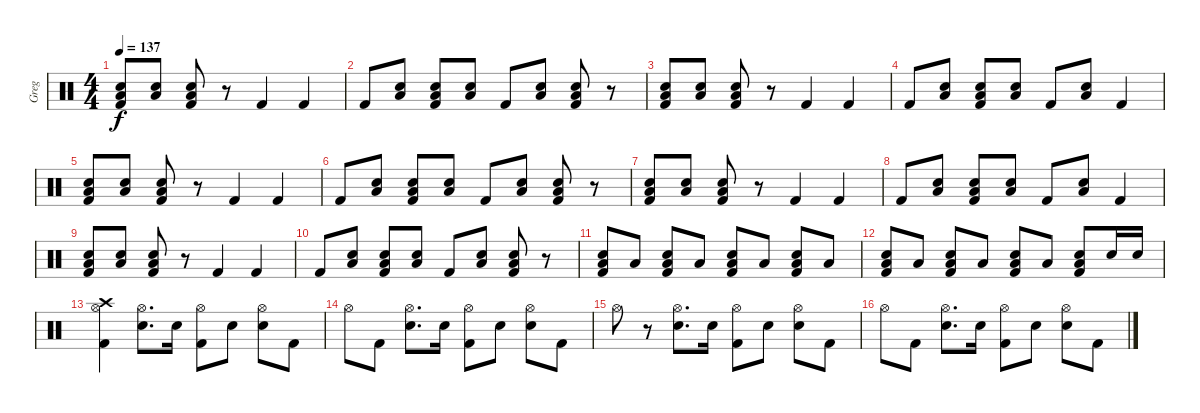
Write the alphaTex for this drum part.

\track ("Greg" "Greg") {instrument percussion}
\staff {score}
\articulation defaults
\ts (4 4)
\tempo 137
\clef neutral
\ks c
("Electric Snare (hit)" "Low Floor Tom (hit)" "Kick (hit) 2").8{dy f} ("Electric Snare (hit)" "Low Floor Tom (hit)").8 ("Electric Snare (hit)" "Low Floor Tom (hit)" "Kick (hit) 2").8 r.8 "Kick (hit) 2".4 "Kick (hit) 2".4 |
"Kick (hit) 2".8 ("Electric Snare (hit)" "Low Floor Tom (hit)").8 ("Electric Snare (hit)" "Low Floor Tom (hit)" "Kick (hit) 2").8 ("Electric Snare (hit)" "Low Floor Tom (hit)").8 "Kick (hit) 2".8 ("Electric Snare (hit)" "Low Floor Tom (hit)").8 ("Electric Snare (hit)" "Low Floor Tom (hit)" "Kick (hit) 2").8 r.8 |
("Electric Snare (hit)" "Low Floor Tom (hit)" "Kick (hit) 2").8 ("Electric Snare (hit)" "Low Floor Tom (hit)").8 ("Electric Snare (hit)" "Low Floor Tom (hit)" "Kick (hit) 2").8 r.8 "Kick (hit) 2".4 "Kick (hit) 2".4 |
"Kick (hit) 2".8 ("Electric Snare (hit)" "Low Floor Tom (hit)").8 ("Electric Snare (hit)" "Low Floor Tom (hit)" "Kick (hit) 2").8 ("Electric Snare (hit)" "Low Floor Tom (hit)").8 "Kick (hit) 2".8 ("Electric Snare (hit)" "Low Floor Tom (hit)").8 "Kick (hit) 2".4 |
("Electric Snare (hit)" "Low Floor Tom (hit)" "Kick (hit) 2").8 ("Electric Snare (hit)" "Low Floor Tom (hit)").8 ("Electric Snare (hit)" "Low Floor Tom (hit)" "Kick (hit) 2").8 r.8 "Kick (hit) 2".4 "Kick (hit) 2".4 |
"Kick (hit) 2".8 ("Electric Snare (hit)" "Low Floor Tom (hit)").8 ("Electric Snare (hit)" "Low Floor Tom (hit)" "Kick (hit) 2").8 ("Electric Snare (hit)" "Low Floor Tom (hit)").8 "Kick (hit) 2".8 ("Electric Snare (hit)" "Low Floor Tom (hit)").8 ("Electric Snare (hit)" "Low Floor Tom (hit)" "Kick (hit) 2").8 r.8 |
("Electric Snare (hit)" "Low Floor Tom (hit)" "Kick (hit) 2").8 ("Electric Snare (hit)" "Low Floor Tom (hit)").8 ("Electric Snare (hit)" "Low Floor Tom (hit)" "Kick (hit) 2").8 r.8 "Kick (hit) 2".4 "Kick (hit) 2".4 |
"Kick (hit) 2".8 ("Electric Snare (hit)" "Low Floor Tom (hit)").8 ("Electric Snare (hit)" "Low Floor Tom (hit)" "Kick (hit) 2").8 ("Electric Snare (hit)" "Low Floor Tom (hit)").8 "Kick (hit) 2".8 ("Electric Snare (hit)" "Low Floor Tom (hit)").8 "Kick (hit) 2".4 |
("Electric Snare (hit)" "Low Floor Tom (hit)" "Kick (hit) 2").8 ("Electric Snare (hit)" "Low Floor Tom (hit)").8 ("Electric Snare (hit)" "Low Floor Tom (hit)" "Kick (hit) 2").8 r.8 "Kick (hit) 2".4 "Kick (hit) 2".4 |
"Kick (hit) 2".8 ("Electric Snare (hit)" "Low Floor Tom (hit)").8 ("Electric Snare (hit)" "Low Floor Tom (hit)" "Kick (hit) 2").8 ("Electric Snare (hit)" "Low Floor Tom (hit)").8 "Kick (hit) 2".8 ("Electric Snare (hit)" "Low Floor Tom (hit)").8 ("Electric Snare (hit)" "Low Floor Tom (hit)" "Kick (hit) 2").8 r.8 |
("Electric Snare (hit)" "Low Floor Tom (hit)" "Kick (hit) 2").8 "Low Floor Tom (hit)".8 ("Electric Snare (hit)" "Low Floor Tom (hit)" "Kick (hit) 2").8 "Low Floor Tom (hit)".8 ("Electric Snare (hit)" "Low Floor Tom (hit)" "Kick (hit) 2").8 "Low Floor Tom (hit)".8 ("Electric Snare (hit)" "Low Floor Tom (hit)" "Kick (hit) 2").8 "Low Floor Tom (hit)".8 |
("Electric Snare (hit)" "Low Floor Tom (hit)" "Kick (hit) 2").8 "Low Floor Tom (hit)".8 ("Electric Snare (hit)" "Low Floor Tom (hit)" "Kick (hit) 2").8 "Low Floor Tom (hit)".8 ("Electric Snare (hit)" "Low Floor Tom (hit)" "Kick (hit) 2").8 "Low Floor Tom (hit)".8 ("Electric Snare (hit)" "Low Floor Tom (hit)" "Kick (hit) 2").8 "Electric Snare (hit)".16 "Electric Snare (hit)".16 |
("Crash high (hit)" "Hi-Hat (open)" "Kick (hit) 2").4 ("Hi-Hat (open)" "Electric Snare (hit)").8{d} "Electric Snare (hit)".16 ("Hi-Hat (open)" "Kick (hit) 2").8 "Electric Snare (hit)".8 ("Hi-Hat (open)" "Electric Snare (hit)").8 "Kick (hit) 2".8 |
"Hi-Hat (open)".8 "Kick (hit) 2".8 ("Hi-Hat (open)" "Electric Snare (hit)").8{d} "Electric Snare (hit)".16 ("Hi-Hat (open)" "Kick (hit) 2").8 "Electric Snare (hit)".8 ("Hi-Hat (open)" "Electric Snare (hit)").8 "Kick (hit) 2".8 |
"Hi-Hat (open)".8 r.8 ("Hi-Hat (open)" "Electric Snare (hit)").8{d} "Electric Snare (hit)".16 ("Hi-Hat (open)" "Kick (hit) 2").8 "Electric Snare (hit)".8 ("Hi-Hat (open)" "Electric Snare (hit)").8 "Kick (hit) 2".8 |
"Hi-Hat (open)".8 "Kick (hit) 2".8 ("Hi-Hat (open)" "Electric Snare (hit)").8{d} "Electric Snare (hit)".16 ("Hi-Hat (open)" "Kick (hit) 2").8 "Electric Snare (hit)".8 ("Hi-Hat (open)" "Electric Snare (hit)").8 "Kick (hit) 2".8
